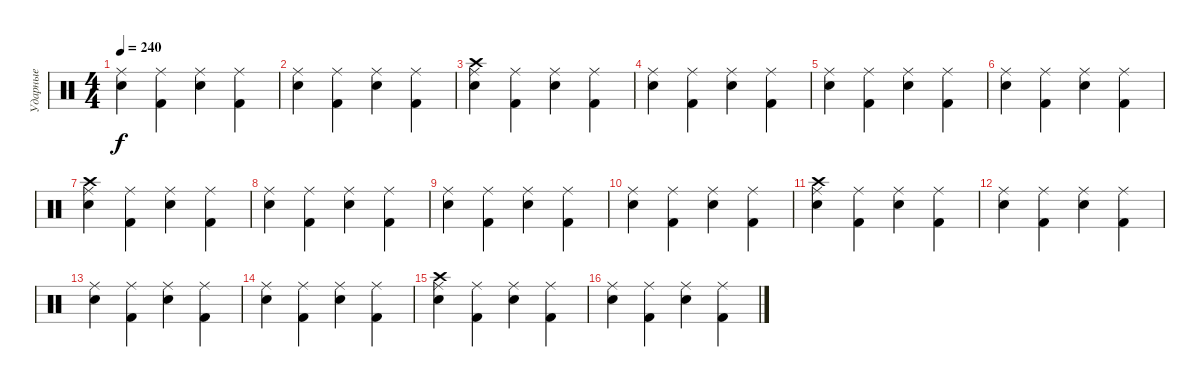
\track ("Ударные" "Ударные") {instrument percussion}
\staff {score}
\articulation defaults
\ts (4 4)
\tempo 240
\clef neutral
\ks c
("Electric Snare (hit)" "Ride (middle)").4{dy f} ("Kick (hit) 2" "Ride (middle)").4 ("Electric Snare (hit)" "Ride (middle)").4 ("Kick (hit) 2" "Ride (middle)").4 |
("Electric Snare (hit)" "Ride (middle)").4 ("Kick (hit) 2" "Ride (middle)").4 ("Electric Snare (hit)" "Ride (middle)").4 ("Kick (hit) 2" "Ride (middle)").4 |
("Electric Snare (hit)" "Crash high (hit)" "Ride (middle)").4 ("Kick (hit) 2" "Ride (middle)").4 ("Electric Snare (hit)" "Ride (middle)").4 ("Kick (hit) 2" "Ride (middle)").4 |
("Electric Snare (hit)" "Ride (middle)").4 ("Kick (hit) 2" "Ride (middle)").4 ("Electric Snare (hit)" "Ride (middle)").4 ("Kick (hit) 2" "Ride (middle)").4 |
("Electric Snare (hit)" "Ride (middle)").4 ("Kick (hit) 2" "Ride (middle)").4 ("Electric Snare (hit)" "Ride (middle)").4 ("Kick (hit) 2" "Ride (middle)").4 |
("Electric Snare (hit)" "Ride (middle)").4 ("Kick (hit) 2" "Ride (middle)").4 ("Electric Snare (hit)" "Ride (middle)").4 ("Kick (hit) 2" "Ride (middle)").4 |
("Electric Snare (hit)" "Crash high (hit)" "Ride (middle)").4 ("Kick (hit) 2" "Ride (middle)").4 ("Electric Snare (hit)" "Ride (middle)").4 ("Kick (hit) 2" "Ride (middle)").4 |
("Electric Snare (hit)" "Ride (middle)").4 ("Kick (hit) 2" "Ride (middle)").4 ("Electric Snare (hit)" "Ride (middle)").4 ("Kick (hit) 2" "Ride (middle)").4 |
("Electric Snare (hit)" "Ride (middle)").4 ("Kick (hit) 2" "Ride (middle)").4 ("Electric Snare (hit)" "Ride (middle)").4 ("Kick (hit) 2" "Ride (middle)").4 |
("Electric Snare (hit)" "Ride (middle)").4 ("Kick (hit) 2" "Ride (middle)").4 ("Electric Snare (hit)" "Ride (middle)").4 ("Kick (hit) 2" "Ride (middle)").4 |
("Electric Snare (hit)" "Crash high (hit)" "Ride (middle)").4 ("Kick (hit) 2" "Ride (middle)").4 ("Electric Snare (hit)" "Ride (middle)").4 ("Kick (hit) 2" "Ride (middle)").4 |
("Electric Snare (hit)" "Ride (middle)").4 ("Kick (hit) 2" "Ride (middle)").4 ("Electric Snare (hit)" "Ride (middle)").4 ("Kick (hit) 2" "Ride (middle)").4 |
("Electric Snare (hit)" "Ride (middle)").4 ("Kick (hit) 2" "Ride (middle)").4 ("Electric Snare (hit)" "Ride (middle)").4 ("Kick (hit) 2" "Ride (middle)").4 |
("Electric Snare (hit)" "Ride (middle)").4 ("Kick (hit) 2" "Ride (middle)").4 ("Electric Snare (hit)" "Ride (middle)").4 ("Kick (hit) 2" "Ride (middle)").4 |
("Electric Snare (hit)" "Crash high (hit)" "Ride (middle)").4 ("Kick (hit) 2" "Ride (middle)").4 ("Electric Snare (hit)" "Ride (middle)").4 ("Kick (hit) 2" "Ride (middle)").4 |
("Electric Snare (hit)" "Ride (middle)").4 ("Kick (hit) 2" "Ride (middle)").4 ("Electric Snare (hit)" "Ride (middle)").4 ("Kick (hit) 2" "Ride (middle)").4
